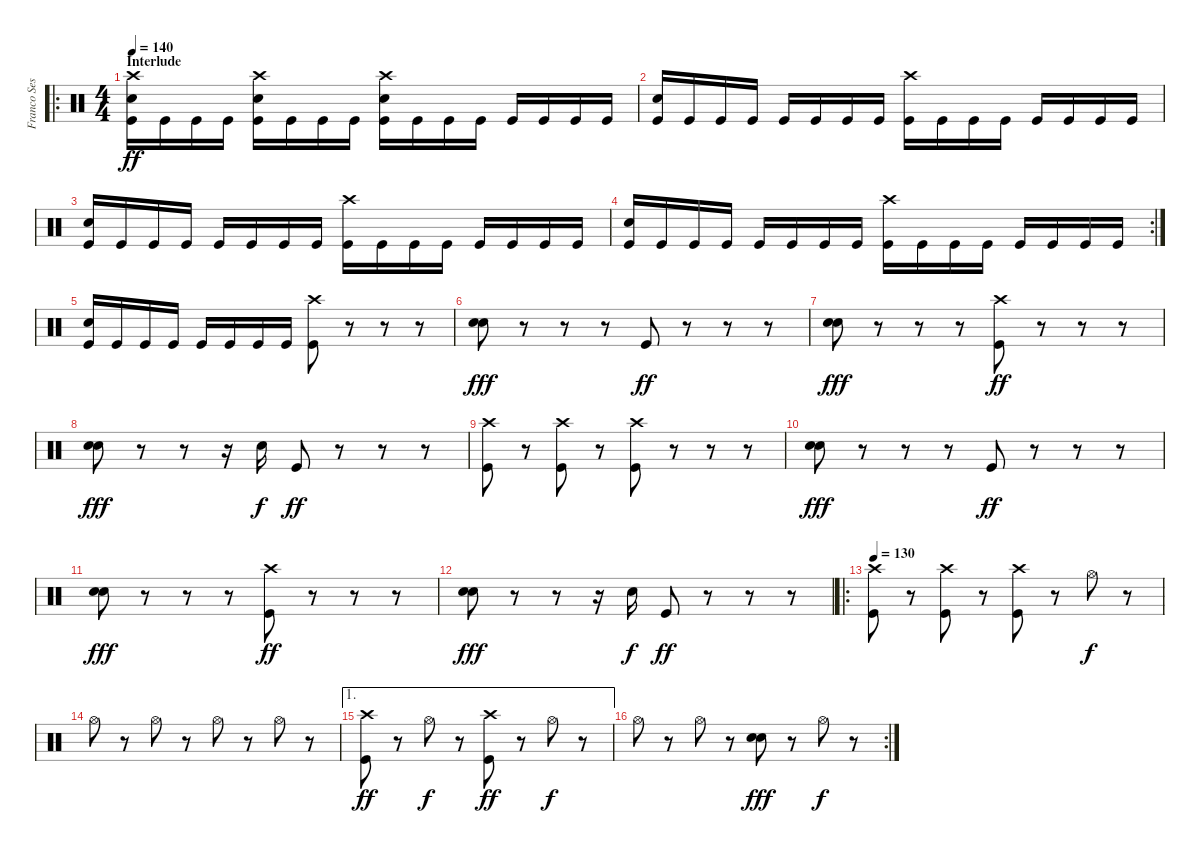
\track ("Franco Sesa" "Franco Ses") {instrument percussion}
\staff {score}
\articulation defaults
\ro
\ts (4 4)
\section ("" "Interlude")
\tempo 140
\clef neutral
\ks c
("Crash high (hit)" "Electric Snare (hit)" "Kick (hit)").16{dy ff} "Kick (hit)".16 "Kick (hit)".16 "Kick (hit)".16 ("Crash high (hit)" "Electric Snare (hit)" "Kick (hit)").16 "Kick (hit)".16 "Kick (hit)".16 "Kick (hit)".16 ("Crash high (hit)" "Electric Snare (hit)" "Kick (hit)").16 "Kick (hit)".16 "Kick (hit)".16 "Kick (hit)".16 "Kick (hit)".16 "Kick (hit)".16 "Kick (hit)".16 "Kick (hit)".16 |
("Electric Snare (hit)" "Kick (hit)").16 "Kick (hit)".16 "Kick (hit)".16 "Kick (hit)".16 "Kick (hit)".16 "Kick (hit)".16 "Kick (hit)".16 "Kick (hit)".16 ("Crash high (hit)" "Kick (hit)").16 "Kick (hit)".16 "Kick (hit)".16 "Kick (hit)".16 "Kick (hit)".16 "Kick (hit)".16 "Kick (hit)".16 "Kick (hit)".16 |
("Electric Snare (hit)" "Kick (hit)").16 "Kick (hit)".16 "Kick (hit)".16 "Kick (hit)".16 "Kick (hit)".16 "Kick (hit)".16 "Kick (hit)".16 "Kick (hit)".16 ("Crash high (hit)" "Kick (hit)").16 "Kick (hit)".16 "Kick (hit)".16 "Kick (hit)".16 "Kick (hit)".16 "Kick (hit)".16 "Kick (hit)".16 "Kick (hit)".16 |
\rc 2
("Electric Snare (hit)" "Kick (hit)").16 "Kick (hit)".16 "Kick (hit)".16 "Kick (hit)".16 "Kick (hit)".16 "Kick (hit)".16 "Kick (hit)".16 "Kick (hit)".16 ("Crash high (hit)" "Kick (hit)").16 "Kick (hit)".16 "Kick (hit)".16 "Kick (hit)".16 "Kick (hit)".16 "Kick (hit)".16 "Kick (hit)".16 "Kick (hit)".16 |
("Electric Snare (hit)" "Kick (hit)").16 "Kick (hit)".16 "Kick (hit)".16 "Kick (hit)".16 "Kick (hit)".16 "Kick (hit)".16 "Kick (hit)".16 "Kick (hit)".16 ("Crash high (hit)" "Kick (hit)").8 r.8 r.8 r.8 |
("Electric Snare (hit)" "Electric Snare (hit)").8{dy fff} r.8 r.8 r.8 "Kick (hit)".8{dy ff} r.8 r.8 r.8 |
("Electric Snare (hit)" "Electric Snare (hit)").8{dy fff} r.8 r.8 r.8 ("Crash high (hit)" "Kick (hit)").8{dy ff} r.8 r.8 r.8 |
("Electric Snare (hit)" "Electric Snare (hit)").8{dy fff} r.8 r.8 r.16 "Electric Snare (hit)".16{dy f} "Kick (hit)".8{dy ff} r.8 r.8 r.8 |
("Crash high (hit)" "Kick (hit)").8 r.8 ("Crash high (hit)" "Kick (hit)").8 r.8 ("Crash high (hit)" "Kick (hit)").8 r.8 r.8 r.8 |
("Electric Snare (hit)" "Electric Snare (hit)").8{dy fff} r.8 r.8 r.8 "Kick (hit)".8{dy ff} r.8 r.8 r.8 |
("Electric Snare (hit)" "Electric Snare (hit)").8{dy fff} r.8 r.8 r.8 ("Crash high (hit)" "Kick (hit)").8{dy ff} r.8 r.8 r.8 |
("Electric Snare (hit)" "Electric Snare (hit)").8{dy fff} r.8 r.8 r.16 "Electric Snare (hit)".16{dy f} "Kick (hit)".8{dy ff} r.8 r.8 r.8 |
\ro
\tempo 130
("Crash high (hit)" "Kick (hit)").8 r.8 ("Crash high (hit)" "Kick (hit)").8 r.8 ("Crash high (hit)" "Kick (hit)").8 r.8 "Hi-Hat (open)".8{dy f} r.8 |
"Hi-Hat (open)".8 r.8 "Hi-Hat (open)".8 r.8 "Hi-Hat (open)".8 r.8 "Hi-Hat (open)".8 r.8 |
\ae 1
("Crash high (hit)" "Kick (hit)").8{dy ff} r.8 "Hi-Hat (open)".8{dy f} r.8 ("Crash high (hit)" "Kick (hit)").8{dy ff} r.8 "Hi-Hat (open)".8{dy f} r.8 |
\rc 2 "Hi-Hat (open)".8
r.8 "Hi-Hat (open)".8 r.8 ("Electric Snare (hit)" "Electric Snare (hit)").8{dy fff} r.8 "Hi-Hat (open)".8{dy f} r.8
